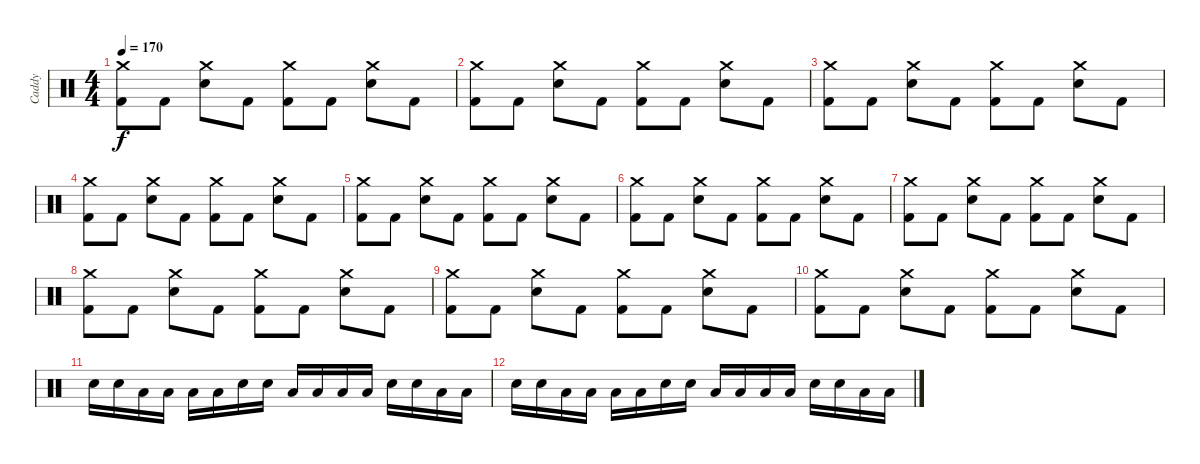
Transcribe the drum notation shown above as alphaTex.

\track ("Caddy" "Caddy") {instrument percussion}
\staff {score}
\articulation defaults
\ts (4 4)
\tempo 170
\clef neutral
\ks c
("Crash medium (hit)" "Kick (hit) 2").8{dy f volume 8} "Kick (hit) 2".8 ("Crash medium (hit)" "Electric Snare (hit)").8 "Kick (hit) 2".8 ("Crash medium (hit)" "Kick (hit) 2").8 "Kick (hit) 2".8 ("Crash medium (hit)" "Electric Snare (hit)").8 "Kick (hit) 2".8 |
("Crash medium (hit)" "Kick (hit) 2").8 "Kick (hit) 2".8 ("Crash medium (hit)" "Electric Snare (hit)").8 "Kick (hit) 2".8 ("Crash medium (hit)" "Kick (hit) 2").8 "Kick (hit) 2".8 ("Crash medium (hit)" "Electric Snare (hit)").8 "Kick (hit) 2".8 |
("Crash medium (hit)" "Kick (hit) 2").8 "Kick (hit) 2".8 ("Crash medium (hit)" "Electric Snare (hit)").8 "Kick (hit) 2".8 ("Crash medium (hit)" "Kick (hit) 2").8 "Kick (hit) 2".8 ("Crash medium (hit)" "Electric Snare (hit)").8 "Kick (hit) 2".8 |
("Crash medium (hit)" "Kick (hit) 2").8 "Kick (hit) 2".8 ("Crash medium (hit)" "Electric Snare (hit)").8 "Kick (hit) 2".8 ("Crash medium (hit)" "Kick (hit) 2").8 "Kick (hit) 2".8 ("Crash medium (hit)" "Electric Snare (hit)").8 "Kick (hit) 2".8 |
("Crash medium (hit)" "Kick (hit) 2").8{volume 4} "Kick (hit) 2".8 ("Crash medium (hit)" "Electric Snare (hit)").8 "Kick (hit) 2".8 ("Crash medium (hit)" "Kick (hit) 2").8 "Kick (hit) 2".8 ("Crash medium (hit)" "Electric Snare (hit)").8 "Kick (hit) 2".8 |
("Crash medium (hit)" "Kick (hit) 2").8 "Kick (hit) 2".8 ("Crash medium (hit)" "Electric Snare (hit)").8 "Kick (hit) 2".8 ("Crash medium (hit)" "Kick (hit) 2").8 "Kick (hit) 2".8 ("Crash medium (hit)" "Electric Snare (hit)").8 "Kick (hit) 2".8 |
("Crash medium (hit)" "Kick (hit) 2").8 "Kick (hit) 2".8 ("Crash medium (hit)" "Electric Snare (hit)").8 "Kick (hit) 2".8 ("Crash medium (hit)" "Kick (hit) 2").8 "Kick (hit) 2".8 ("Crash medium (hit)" "Electric Snare (hit)").8 "Kick (hit) 2".8 |
("Crash medium (hit)" "Kick (hit) 2").8 "Kick (hit) 2".8 ("Crash medium (hit)" "Electric Snare (hit)").8 "Kick (hit) 2".8 ("Crash medium (hit)" "Kick (hit) 2").8 "Kick (hit) 2".8 ("Crash medium (hit)" "Electric Snare (hit)").8 "Kick (hit) 2".8 |
("Crash medium (hit)" "Kick (hit) 2").8{volume 0} "Kick (hit) 2".8 ("Crash medium (hit)" "Electric Snare (hit)").8 "Kick (hit) 2".8 ("Crash medium (hit)" "Kick (hit) 2").8 "Kick (hit) 2".8 ("Crash medium (hit)" "Electric Snare (hit)").8 "Kick (hit) 2".8 |
("Crash medium (hit)" "Kick (hit) 2").8 "Kick (hit) 2".8 ("Crash medium (hit)" "Electric Snare (hit)").8 "Kick (hit) 2".8 ("Crash medium (hit)" "Kick (hit) 2").8 "Kick (hit) 2".8 ("Crash medium (hit)" "Electric Snare (hit)").8 "Kick (hit) 2".8 |
"Electric Snare (hit)".16 "Electric Snare (hit)".16 "Low Tom (hit)".16 "Low Tom (hit)".16 "Low Floor Tom (hit)".16 "Low Floor Tom (hit)".16 "Electric Snare (hit)".16 "Electric Snare (hit)".16 "Low Tom (hit)".16 "Low Tom (hit)".16 "Low Floor Tom (hit)".16 "Low Floor Tom (hit)".16 "Electric Snare (hit)".16 "Electric Snare (hit)".16 "Low Tom (hit)".16 "Low Tom (hit)".16 |
"Electric Snare (hit)".16 "Electric Snare (hit)".16 "Low Tom (hit)".16 "Low Tom (hit)".16 "Low Floor Tom (hit)".16 "Low Floor Tom (hit)".16 "Electric Snare (hit)".16 "Electric Snare (hit)".16 "Low Tom (hit)".16 "Low Tom (hit)".16 "Low Floor Tom (hit)".16 "Low Floor Tom (hit)".16 "Electric Snare (hit)".16 "Electric Snare (hit)".16 "Low Tom (hit)".16 "Low Tom (hit)".16
